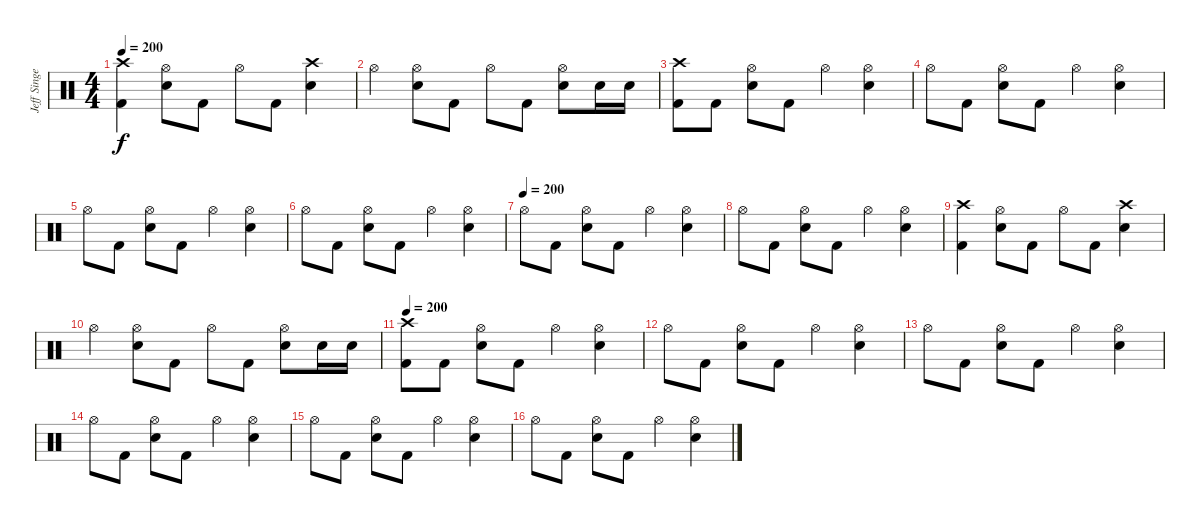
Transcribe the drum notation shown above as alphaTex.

\track ("Jeff Singer" "Jeff Singe") {instrument percussion}
\staff {score}
\articulation defaults
\ts (4 4)
\tempo 200
\clef neutral
\ks c
("Crash high (hit)" "Kick (hit) 2").4{dy f} ("Hi-Hat (open)" "Snare (hit) 2").8 "Kick (hit) 2".8 "Hi-Hat (open)".8 "Kick (hit) 2".8 ("Crash high (hit)" "Snare (hit) 2").4 |
"Hi-Hat (open)".4 ("Hi-Hat (open)" "Snare (hit) 2").8 "Kick (hit) 2".8 "Hi-Hat (open)".8 "Kick (hit) 2".8 ("Hi-Hat (open)" "Snare (hit) 2").8 "Snare (hit) 2".16 "Snare (hit) 2".16 |
("Crash high (hit)" "Kick (hit) 2").8 "Kick (hit) 2".8 ("Hi-Hat (open)" "Snare (hit) 2").8 "Kick (hit) 2".8 "Hi-Hat (open)".4 ("Hi-Hat (open)" "Snare (hit) 2").4 |
"Hi-Hat (open)".8 "Kick (hit) 2".8 ("Hi-Hat (open)" "Snare (hit) 2").8 "Kick (hit) 2".8 "Hi-Hat (open)".4 ("Hi-Hat (open)" "Snare (hit) 2").4 |
"Hi-Hat (open)".8 "Kick (hit) 2".8 ("Hi-Hat (open)" "Snare (hit) 2").8 "Kick (hit) 2".8 "Hi-Hat (open)".4 ("Hi-Hat (open)" "Snare (hit) 2").4 |
"Hi-Hat (open)".8 "Kick (hit) 2".8 ("Hi-Hat (open)" "Snare (hit) 2").8 "Kick (hit) 2".8 "Hi-Hat (open)".4 ("Hi-Hat (open)" "Snare (hit) 2").4 |
\tempo (200)
"Hi-Hat (open)".8 "Kick (hit) 2".8 ("Hi-Hat (open)" "Snare (hit) 2").8 "Kick (hit) 2".8 "Hi-Hat (open)".4 ("Hi-Hat (open)" "Snare (hit) 2").4 |
"Hi-Hat (open)".8 "Kick (hit) 2".8 ("Hi-Hat (open)" "Snare (hit) 2").8 "Kick (hit) 2".8 "Hi-Hat (open)".4 ("Hi-Hat (open)" "Snare (hit) 2").4 |
("Crash high (hit)" "Kick (hit) 2").4 ("Hi-Hat (open)" "Snare (hit) 2").8 "Kick (hit) 2".8 "Hi-Hat (open)".8 "Kick (hit) 2".8 ("Crash high (hit)" "Snare (hit) 2").4 |
"Hi-Hat (open)".4 ("Hi-Hat (open)" "Snare (hit) 2").8 "Kick (hit) 2".8 "Hi-Hat (open)".8 "Kick (hit) 2".8 ("Hi-Hat (open)" "Snare (hit) 2").8 "Snare (hit) 2".16 "Snare (hit) 2".16 |
\tempo 200
("Crash high (hit)" "Kick (hit) 2").8 "Kick (hit) 2".8 ("Hi-Hat (open)" "Snare (hit) 2").8 "Kick (hit) 2".8 "Hi-Hat (open)".4 ("Hi-Hat (open)" "Snare (hit) 2").4 |
"Hi-Hat (open)".8 "Kick (hit) 2".8 ("Hi-Hat (open)" "Snare (hit) 2").8 "Kick (hit) 2".8 "Hi-Hat (open)".4 ("Hi-Hat (open)" "Snare (hit) 2").4 |
"Hi-Hat (open)".8 "Kick (hit) 2".8 ("Hi-Hat (open)" "Snare (hit) 2").8 "Kick (hit) 2".8 "Hi-Hat (open)".4 ("Hi-Hat (open)" "Snare (hit) 2").4 |
"Hi-Hat (open)".8 "Kick (hit) 2".8 ("Hi-Hat (open)" "Snare (hit) 2").8 "Kick (hit) 2".8 "Hi-Hat (open)".4 ("Hi-Hat (open)" "Snare (hit) 2").4 |
"Hi-Hat (open)".8 "Kick (hit) 2".8 ("Hi-Hat (open)" "Snare (hit) 2").8 "Kick (hit) 2".8 "Hi-Hat (open)".4 ("Hi-Hat (open)" "Snare (hit) 2").4 |
"Hi-Hat (open)".8 "Kick (hit) 2".8 ("Hi-Hat (open)" "Snare (hit) 2").8 "Kick (hit) 2".8 "Hi-Hat (open)".4 ("Hi-Hat (open)" "Snare (hit) 2").4
